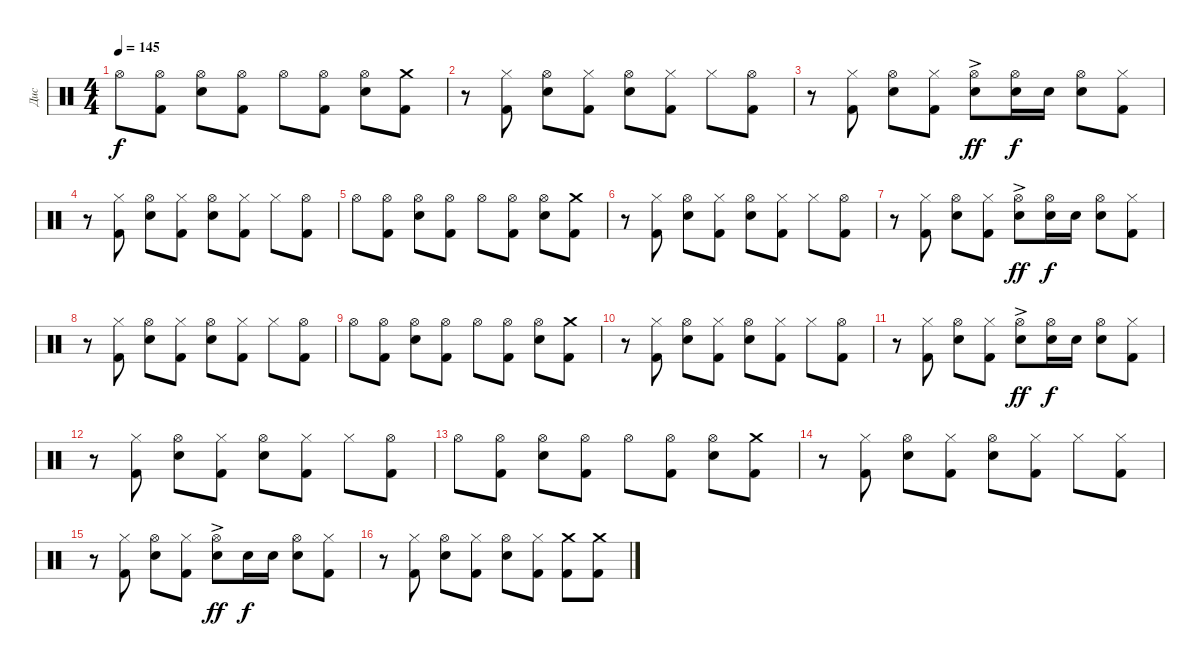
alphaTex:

\track ("Дис" "Дис") {instrument percussion}
\staff {score}
\articulation defaults
\ts (4 4)
\tempo 145
\clef neutral
\ks c "Hi-Hat (open)".8{dy f}
("Hi-Hat (open)" "Kick (hit) 2").8 ("Hi-Hat (open)" "Electric Snare (hit)").8 ("Hi-Hat (open)" "Kick (hit) 2").8 "Hi-Hat (open)".8 ("Hi-Hat (open)" "Kick (hit) 2").8 ("Hi-Hat (open)" "Electric Snare (hit)").8 ("Crash medium (hit)" "Kick (hit) 2").8 |
r.8 ("Hi-Hat (closed)" "Kick (hit) 2").8 ("Hi-Hat (open)" "Electric Snare (hit)").8 ("Hi-Hat (closed)" "Kick (hit) 2").8 ("Hi-Hat (open)" "Electric Snare (hit)").8 ("Hi-Hat (closed)" "Kick (hit) 2").8 "Hi-Hat (closed)".8 ("Hi-Hat (open)" "Kick (hit) 2").8 |
r.8 ("Hi-Hat (closed)" "Kick (hit) 2").8 ("Hi-Hat (open)" "Electric Snare (hit)").8 ("Hi-Hat (closed)" "Kick (hit) 2").8 ("Hi-Hat (open)" "Electric Snare (hit)"{ac}).8{dy ff} ("Hi-Hat (open)" "Electric Snare (hit)").16{dy f} "Electric Snare (hit)".16 ("Hi-Hat (open)" "Electric Snare (hit)").8 ("Hi-Hat (closed)" "Kick (hit) 2").8 |
r.8 ("Hi-Hat (closed)" "Kick (hit) 2").8 ("Hi-Hat (open)" "Electric Snare (hit)").8 ("Hi-Hat (closed)" "Kick (hit) 2").8 ("Hi-Hat (open)" "Electric Snare (hit)").8 ("Hi-Hat (closed)" "Kick (hit) 2").8 "Hi-Hat (closed)".8 ("Hi-Hat (open)" "Kick (hit) 2").8 |
"Hi-Hat (open)".8 ("Hi-Hat (open)" "Kick (hit) 2").8 ("Hi-Hat (open)" "Electric Snare (hit)").8 ("Hi-Hat (open)" "Kick (hit) 2").8 "Hi-Hat (open)".8 ("Hi-Hat (open)" "Kick (hit) 2").8 ("Hi-Hat (open)" "Electric Snare (hit)").8 ("Crash medium (hit)" "Kick (hit) 2").8 |
r.8 ("Hi-Hat (closed)" "Kick (hit) 2").8 ("Hi-Hat (open)" "Electric Snare (hit)").8 ("Hi-Hat (closed)" "Kick (hit) 2").8 ("Hi-Hat (open)" "Electric Snare (hit)").8 ("Hi-Hat (closed)" "Kick (hit) 2").8 "Hi-Hat (closed)".8 ("Hi-Hat (open)" "Kick (hit) 2").8 |
r.8 ("Hi-Hat (closed)" "Kick (hit) 2").8 ("Hi-Hat (open)" "Electric Snare (hit)").8 ("Hi-Hat (closed)" "Kick (hit) 2").8 ("Hi-Hat (open)" "Electric Snare (hit)"{ac}).8{dy ff} ("Hi-Hat (open)" "Electric Snare (hit)").16{dy f} "Electric Snare (hit)".16 ("Hi-Hat (open)" "Electric Snare (hit)").8 ("Hi-Hat (closed)" "Kick (hit) 2").8 |
r.8 ("Hi-Hat (closed)" "Kick (hit) 2").8 ("Hi-Hat (open)" "Electric Snare (hit)").8 ("Hi-Hat (closed)" "Kick (hit) 2").8 ("Hi-Hat (open)" "Electric Snare (hit)").8 ("Hi-Hat (closed)" "Kick (hit) 2").8 "Hi-Hat (closed)".8 ("Hi-Hat (open)" "Kick (hit) 2").8 |
"Hi-Hat (open)".8 ("Hi-Hat (open)" "Kick (hit) 2").8 ("Hi-Hat (open)" "Electric Snare (hit)").8 ("Hi-Hat (open)" "Kick (hit) 2").8 "Hi-Hat (open)".8 ("Hi-Hat (open)" "Kick (hit) 2").8 ("Hi-Hat (open)" "Electric Snare (hit)").8 ("Crash medium (hit)" "Kick (hit) 2").8 |
r.8 ("Hi-Hat (closed)" "Kick (hit) 2").8 ("Hi-Hat (open)" "Electric Snare (hit)").8 ("Hi-Hat (closed)" "Kick (hit) 2").8 ("Hi-Hat (open)" "Electric Snare (hit)").8 ("Hi-Hat (closed)" "Kick (hit) 2").8 "Hi-Hat (closed)".8 ("Hi-Hat (open)" "Kick (hit) 2").8 |
r.8 ("Hi-Hat (closed)" "Kick (hit) 2").8 ("Hi-Hat (open)" "Electric Snare (hit)").8 ("Hi-Hat (closed)" "Kick (hit) 2").8 ("Hi-Hat (open)" "Electric Snare (hit)"{ac}).8{dy ff} ("Hi-Hat (open)" "Electric Snare (hit)").16{dy f} "Electric Snare (hit)".16 ("Hi-Hat (open)" "Electric Snare (hit)").8 ("Hi-Hat (closed)" "Kick (hit) 2").8 |
r.8 ("Hi-Hat (closed)" "Kick (hit) 2").8 ("Hi-Hat (open)" "Electric Snare (hit)").8 ("Hi-Hat (closed)" "Kick (hit) 2").8 ("Hi-Hat (open)" "Electric Snare (hit)").8 ("Hi-Hat (closed)" "Kick (hit) 2").8 "Hi-Hat (closed)".8 ("Hi-Hat (open)" "Kick (hit) 2").8 |
"Hi-Hat (open)".8 ("Hi-Hat (open)" "Kick (hit) 2").8 ("Hi-Hat (open)" "Electric Snare (hit)").8 ("Hi-Hat (open)" "Kick (hit) 2").8 "Hi-Hat (open)".8 ("Hi-Hat (open)" "Kick (hit) 2").8 ("Hi-Hat (open)" "Electric Snare (hit)").8 ("Crash medium (hit)" "Kick (hit) 2").8 |
r.8 ("Hi-Hat (closed)" "Kick (hit) 2").8 ("Hi-Hat (open)" "Electric Snare (hit)").8 ("Hi-Hat (closed)" "Kick (hit) 2").8 ("Hi-Hat (open)" "Electric Snare (hit)").8 ("Hi-Hat (closed)" "Kick (hit) 2").8 "Hi-Hat (closed)".8 ("Hi-Hat (closed)" "Kick (hit) 2").8 |
r.8 ("Hi-Hat (closed)" "Kick (hit) 2").8 ("Hi-Hat (open)" "Electric Snare (hit)").8 ("Hi-Hat (closed)" "Kick (hit) 2").8 ("Hi-Hat (open)" "Electric Snare (hit)"{ac}).8{dy ff} "Electric Snare (hit)".16{dy f} "Electric Snare (hit)".16 ("Hi-Hat (open)" "Electric Snare (hit)").8 ("Hi-Hat (closed)" "Kick (hit) 2").8 |
r.8 ("Hi-Hat (closed)" "Kick (hit) 2").8 ("Hi-Hat (open)" "Electric Snare (hit)").8 ("Hi-Hat (closed)" "Kick (hit) 2").8 ("Hi-Hat (open)" "Electric Snare (hit)").8 ("Hi-Hat (closed)" "Kick (hit) 2").8 ("Crash medium (hit)" "Kick (hit) 2").8 ("Crash medium (hit)" "Kick (hit) 2").8
